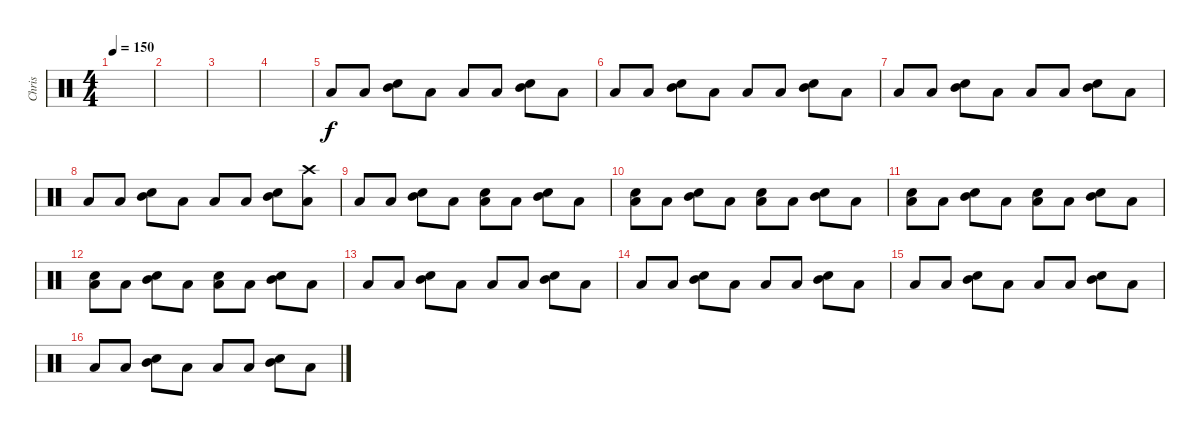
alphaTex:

\track ("Chris" "Chris") {instrument percussion}
\staff {score}
\articulation defaults
\ts (4 4)
\tempo 150
\clef neutral
\ks c
|
|
|
|
"Low Tom (hit)".8 "Low Tom (hit)".8 ("Mid Tom (hit)" "Snare (hit) 2").8 "Low Tom (hit)".8 "Low Tom (hit)".8 "Low Tom (hit)".8 ("Mid Tom (hit)" "Snare (hit) 2").8 "Low Tom (hit)".8 |
"Low Tom (hit)".8 "Low Tom (hit)".8 ("Mid Tom (hit)" "Snare (hit) 2").8 "Low Tom (hit)".8 "Low Tom (hit)".8 "Low Tom (hit)".8 ("Mid Tom (hit)" "Snare (hit) 2").8 "Low Tom (hit)".8 |
"Low Tom (hit)".8 "Low Tom (hit)".8 ("Mid Tom (hit)" "Snare (hit) 2").8 "Low Tom (hit)".8 "Low Tom (hit)".8 "Low Tom (hit)".8 ("Mid Tom (hit)" "Snare (hit) 2").8 "Low Tom (hit)".8 |
"Low Tom (hit)".8 "Low Tom (hit)".8 ("Mid Tom (hit)" "Snare (hit) 2").8 "Low Tom (hit)".8 "Low Tom (hit)".8 "Low Tom (hit)".8 ("Mid Tom (hit)" "Snare (hit) 2").8 ("Low Tom (hit)" "Crash high (hit)").8 |
"Low Tom (hit)".8 "Low Tom (hit)".8 ("Mid Tom (hit)" "Snare (hit) 2").8 "Low Tom (hit)".8 ("Low Tom (hit)" "Snare (hit) 2").8 "Low Tom (hit)".8 ("Mid Tom (hit)" "Snare (hit) 2").8 "Low Tom (hit)".8 |
("Low Tom (hit)" "Snare (hit) 2").8 "Low Tom (hit)".8 ("Mid Tom (hit)" "Snare (hit) 2").8 "Low Tom (hit)".8 ("Low Tom (hit)" "Snare (hit) 2").8 "Low Tom (hit)".8 ("Mid Tom (hit)" "Snare (hit) 2").8 "Low Tom (hit)".8 |
("Low Tom (hit)" "Snare (hit) 2").8 "Low Tom (hit)".8 ("Mid Tom (hit)" "Snare (hit) 2").8 "Low Tom (hit)".8 ("Low Tom (hit)" "Snare (hit) 2").8 "Low Tom (hit)".8 ("Mid Tom (hit)" "Snare (hit) 2").8 "Low Tom (hit)".8 |
("Low Tom (hit)" "Snare (hit) 2").8 "Low Tom (hit)".8 ("Mid Tom (hit)" "Snare (hit) 2").8 "Low Tom (hit)".8 ("Low Tom (hit)" "Snare (hit) 2").8 "Low Tom (hit)".8 ("Mid Tom (hit)" "Snare (hit) 2").8 "Low Tom (hit)".8 |
"Low Tom (hit)".8 "Low Tom (hit)".8 ("Mid Tom (hit)" "Snare (hit) 2").8 "Low Tom (hit)".8 "Low Tom (hit)".8 "Low Tom (hit)".8 ("Mid Tom (hit)" "Snare (hit) 2").8 "Low Tom (hit)".8 |
"Low Tom (hit)".8 "Low Tom (hit)".8 ("Mid Tom (hit)" "Snare (hit) 2").8 "Low Tom (hit)".8 "Low Tom (hit)".8 "Low Tom (hit)".8 ("Mid Tom (hit)" "Snare (hit) 2").8 "Low Tom (hit)".8 |
"Low Tom (hit)".8 "Low Tom (hit)".8 ("Mid Tom (hit)" "Snare (hit) 2").8 "Low Tom (hit)".8 "Low Tom (hit)".8 "Low Tom (hit)".8 ("Mid Tom (hit)" "Snare (hit) 2").8 "Low Tom (hit)".8 |
"Low Tom (hit)".8 "Low Tom (hit)".8 ("Mid Tom (hit)" "Snare (hit) 2").8 "Low Tom (hit)".8 "Low Tom (hit)".8 "Low Tom (hit)".8 ("Mid Tom (hit)" "Snare (hit) 2").8 "Low Tom (hit)".8
